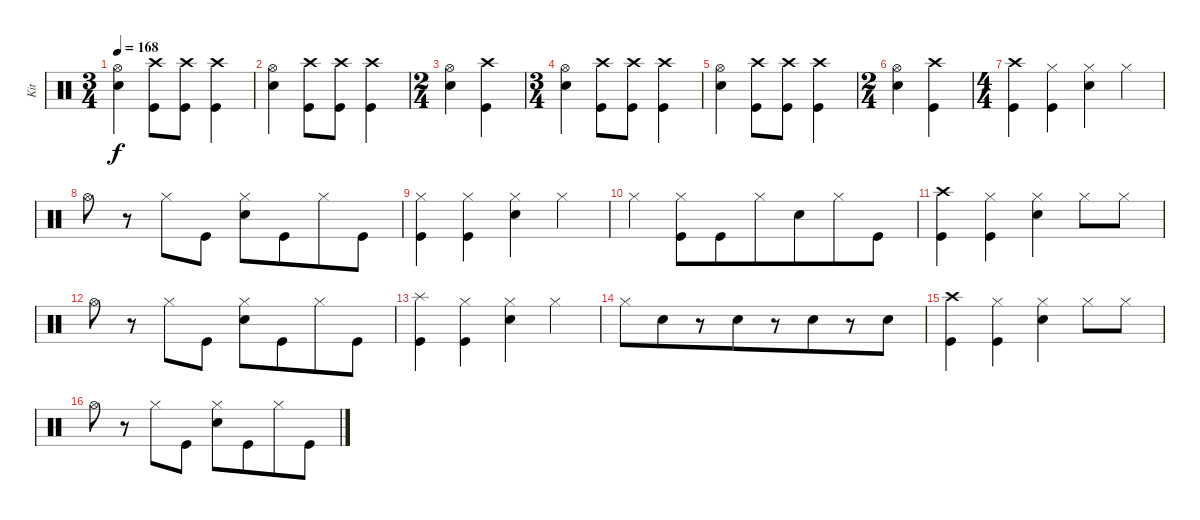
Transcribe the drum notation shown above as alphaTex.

\track ("Kit" "Kit") {instrument percussion}
\staff {score}
\articulation defaults
\ts (3 4)
\tempo 168
\clef neutral
\ks c
("Hi-Hat (open)" "Electric Snare (hit)").4{dy f beam merge} ("Crash high (hit)" "Kick (hit)").8{beam merge} ("Crash high (hit)" "Kick (hit)").8{beam merge} ("Crash high (hit)" "Kick (hit)").4 |
("Hi-Hat (open)" "Electric Snare (hit)").4{beam merge} ("Crash high (hit)" "Kick (hit)").8{beam merge} ("Crash high (hit)" "Kick (hit)").8{beam merge} ("Crash high (hit)" "Kick (hit)").4 |
\ts (2 4)
("Hi-Hat (open)" "Electric Snare (hit)").4 ("Crash high (hit)" "Kick (hit)").4 |
\ts (3 4)
("Hi-Hat (open)" "Electric Snare (hit)").4{beam merge} ("Crash high (hit)" "Kick (hit)").8{beam merge} ("Crash high (hit)" "Kick (hit)").8{beam merge} ("Crash high (hit)" "Kick (hit)").4 |
("Hi-Hat (open)" "Electric Snare (hit)").4{beam merge} ("Crash high (hit)" "Kick (hit)").8{beam merge} ("Crash high (hit)" "Kick (hit)").8{beam merge} ("Crash high (hit)" "Kick (hit)").4 |
\ts (2 4)
("Hi-Hat (open)" "Electric Snare (hit)").4 ("Crash high (hit)" "Kick (hit)").4 |
\ts (4 4)
("Crash high (hit)" "Kick (hit)").4{beam merge} ("Hi-Hat (closed)" "Kick (hit)").4{beam merge} ("Hi-Hat (closed)" "Electric Snare (hit)").4 "Hi-Hat (closed)".4 |
"Hi-Hat (open)".8 r.8{beam merge} "Hi-Hat (closed)".8 "Kick (hit)".8 ("Hi-Hat (closed)" "Electric Snare (hit)").8 "Kick (hit)".8{beam merge} "Hi-Hat (closed)".8{beam merge} "Kick (hit)".8 |
("Hi-Hat (closed)" "Kick (hit)").4{beam merge} ("Hi-Hat (closed)" "Kick (hit)").4{beam merge} ("Hi-Hat (closed)" "Electric Snare (hit)").4 "Hi-Hat (closed)".4 |
"Hi-Hat (closed)".4 ("Hi-Hat (closed)" "Kick (hit)").8 "Kick (hit)".8{beam merge} "Hi-Hat (closed)".8 "Electric Snare (hit)".8{beam merge} "Hi-Hat (closed)".8{beam merge} "Kick (hit)".8 |
("Crash high (hit)" "Kick (hit)").4{beam merge} ("Hi-Hat (closed)" "Kick (hit)").4{beam merge} ("Hi-Hat (closed)" "Electric Snare (hit)").4 "Hi-Hat (closed)".8 "Hi-Hat (closed)".8 |
"Hi-Hat (open)".8 r.8{beam merge} "Hi-Hat (closed)".8 "Kick (hit)".8 ("Hi-Hat (closed)" "Electric Snare (hit)").8 "Kick (hit)".8{beam merge} "Hi-Hat (closed)".8{beam merge} "Kick (hit)".8 |
("Splash (hit)" "Kick (hit)").4{beam merge} ("Hi-Hat (closed)" "Kick (hit)").4{beam merge} ("Hi-Hat (closed)" "Electric Snare (hit)").4 "Hi-Hat (closed)".4 |
"Hi-Hat (closed)".8 "Electric Snare (hit)".8{beam merge} r.8 "Electric Snare (hit)".8{beam merge} r.8 "Electric Snare (hit)".8{beam merge} r.8 "Electric Snare (hit)".8 |
("Crash high (hit)" "Kick (hit)").4{beam merge} ("Hi-Hat (closed)" "Kick (hit)").4{beam merge} ("Hi-Hat (closed)" "Electric Snare (hit)").4 "Hi-Hat (closed)".8 "Hi-Hat (closed)".8 |
"Hi-Hat (open)".8 r.8{beam merge} "Hi-Hat (closed)".8 "Kick (hit)".8 ("Hi-Hat (closed)" "Electric Snare (hit)").8 "Kick (hit)".8{beam merge} "Hi-Hat (closed)".8{beam merge} "Kick (hit)".8
